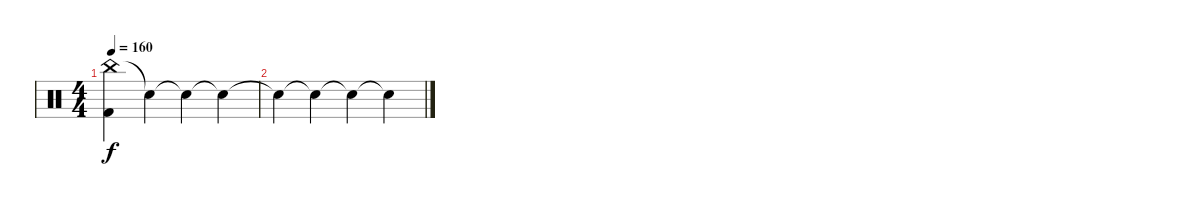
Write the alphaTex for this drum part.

\track "" {instrument percussion}
\staff {score}
\articulation defaults
\ts (4 4)
\tempo 160
\clef neutral
\ks c
("China (hit)" "Kick (hit) 2").4{dy f} "Snare (hit)"{t}.4 "Snare (hit)"{t}.4 "Snare (hit)"{t}.4 |
"Snare (hit)"{t}.4 "Snare (hit)"{t}.4 "Snare (hit)"{t}.4 "Snare (hit)"{t}.4
